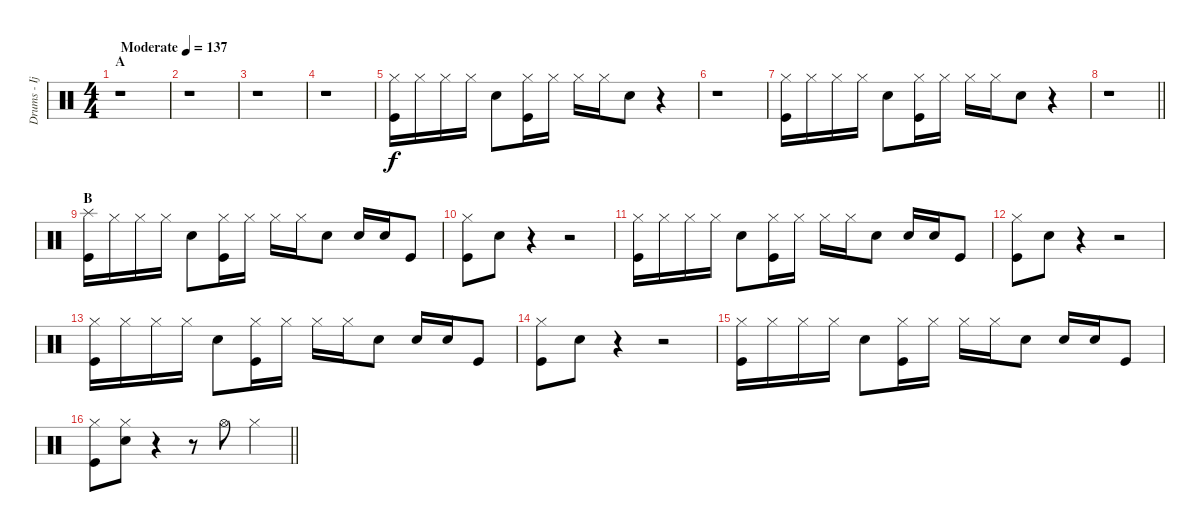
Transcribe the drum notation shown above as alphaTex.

\track ("Drums - Ijichi" "Drums - Ij") {instrument percussion}
\staff {score}
\articulation defaults
\ts (4 4)
\section ("" "A")
\tempo (137 "Moderate")
\clef neutral
\ks c
r.1{dy f} |
r.1 |
r.1 |
r.1 |
("Hi-Hat (closed)" "Kick (hit)").16 "Hi-Hat (closed)".16 "Hi-Hat (closed)".16 "Hi-Hat (closed)".16 "Electric Snare (hit)".8 ("Hi-Hat (closed)" "Kick (hit)").16 "Hi-Hat (closed)".16 "Hi-Hat (closed)".16 "Hi-Hat (closed)".16 "Electric Snare (hit)".8 r.4 |
r.1 |
("Hi-Hat (closed)" "Kick (hit)").16 "Hi-Hat (closed)".16 "Hi-Hat (closed)".16 "Hi-Hat (closed)".16 "Electric Snare (hit)".8 ("Hi-Hat (closed)" "Kick (hit)").16 "Hi-Hat (closed)".16 "Hi-Hat (closed)".16 "Hi-Hat (closed)".16 "Electric Snare (hit)".8 r.4 |
\barLineRight lightlight
r.1 |
\section ("" "B")
("Splash (hit)" "Kick (hit)").16 "Hi-Hat (closed)".16 "Hi-Hat (closed)".16 "Hi-Hat (closed)".16 "Electric Snare (hit)".8 ("Hi-Hat (closed)" "Kick (hit)").16 "Hi-Hat (closed)".16 "Hi-Hat (closed)".16 "Hi-Hat (closed)".16 "Electric Snare (hit)".8 "Electric Snare (hit)".16 "Electric Snare (hit)".16 "Kick (hit)".8 |
("Hi-Hat (closed)" "Kick (hit)").8 "Electric Snare (hit)".8 r.4 r.2 |
("Hi-Hat (closed)" "Kick (hit)").16 "Hi-Hat (closed)".16 "Hi-Hat (closed)".16 "Hi-Hat (closed)".16 "Electric Snare (hit)".8 ("Hi-Hat (closed)" "Kick (hit)").16 "Hi-Hat (closed)".16 "Hi-Hat (closed)".16 "Hi-Hat (closed)".16 "Electric Snare (hit)".8 "Electric Snare (hit)".16 "Electric Snare (hit)".16 "Kick (hit)".8 |
("Hi-Hat (closed)" "Kick (hit)").8 "Electric Snare (hit)".8 r.4 r.2 |
("Hi-Hat (closed)" "Kick (hit)").16 "Hi-Hat (closed)".16 "Hi-Hat (closed)".16 "Hi-Hat (closed)".16 "Electric Snare (hit)".8 ("Hi-Hat (closed)" "Kick (hit)").16 "Hi-Hat (closed)".16 "Hi-Hat (closed)".16 "Hi-Hat (closed)".16 "Electric Snare (hit)".8 "Electric Snare (hit)".16 "Electric Snare (hit)".16 "Kick (hit)".8 |
("Hi-Hat (closed)" "Kick (hit)").8 "Electric Snare (hit)".8 r.4 r.2 |
("Hi-Hat (closed)" "Kick (hit)").16 "Hi-Hat (closed)".16 "Hi-Hat (closed)".16 "Hi-Hat (closed)".16 "Electric Snare (hit)".8 ("Hi-Hat (closed)" "Kick (hit)").16 "Hi-Hat (closed)".16 "Hi-Hat (closed)".16 "Hi-Hat (closed)".16 "Electric Snare (hit)".8 "Electric Snare (hit)".16 "Electric Snare (hit)".16 "Kick (hit)".8 |
\barLineRight lightlight
("Hi-Hat (closed)" "Kick (hit)").8 ("Hi-Hat (closed)" "Electric Snare (hit)").8 r.4 r.8 "Hi-Hat (open)".8 "Hi-Hat (closed)".4
